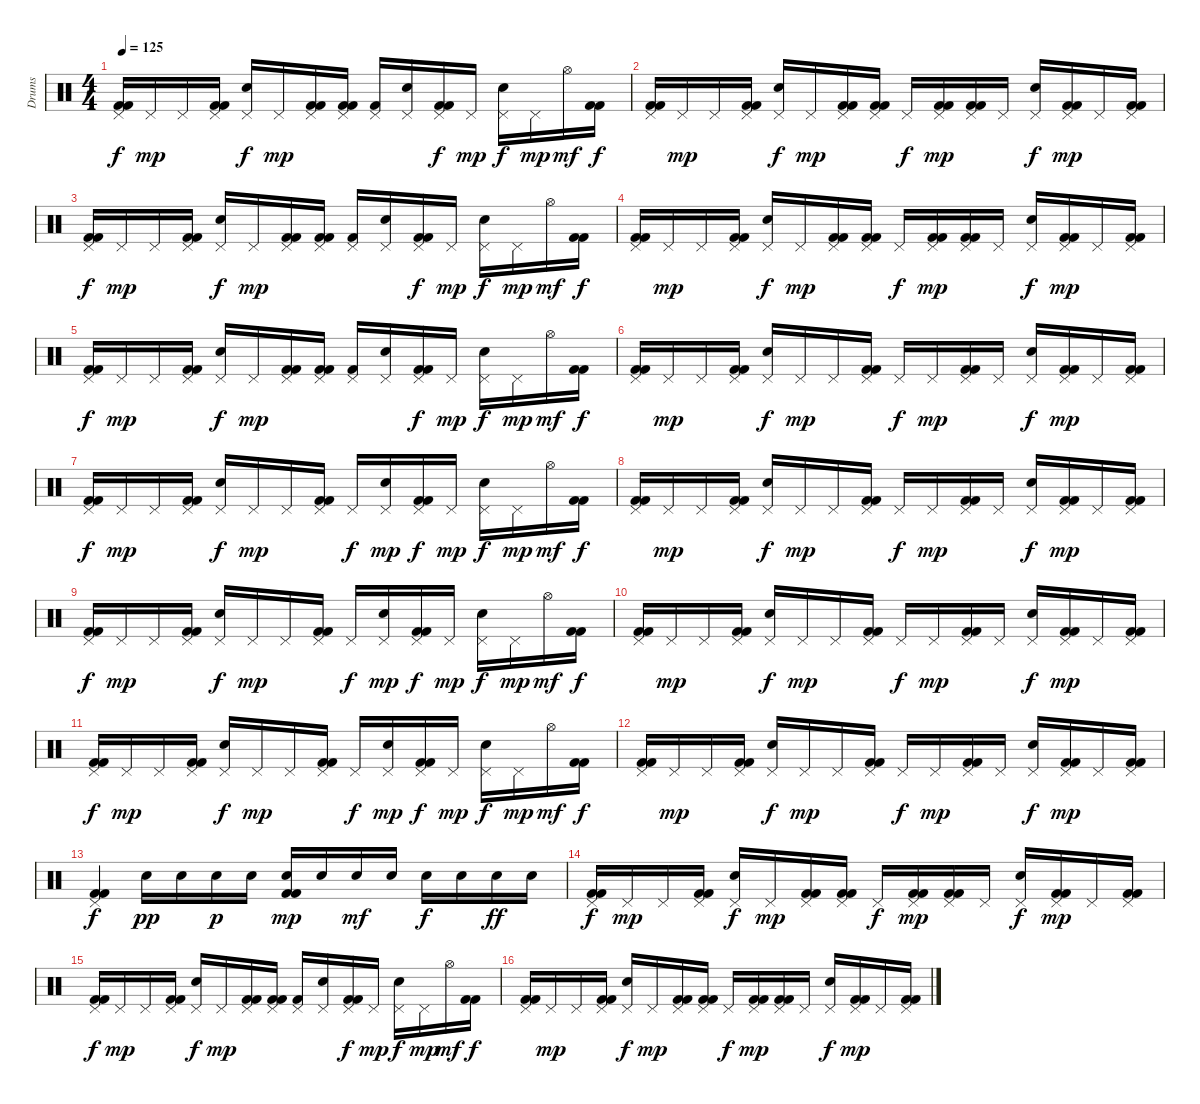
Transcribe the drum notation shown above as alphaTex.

\track ("Drums" "Drums") {instrument percussion}
\staff {score}
\articulation defaults
\ts (4 4)
\tempo 125
\clef neutral
\ks c
("Pedal Hi-Hat (hit)" "Kick (hit) 2" "Kick (hit) 2").16{dy f} "Pedal Hi-Hat (hit)".16{dy mp} "Pedal Hi-Hat (hit)".16 ("Pedal Hi-Hat (hit)" "Kick (hit) 2" "Kick (hit) 2").16 ("Pedal Hi-Hat (hit)" "Electric Snare (hit)").16{dy f} "Pedal Hi-Hat (hit)".16{dy mp} ("Pedal Hi-Hat (hit)" "Kick (hit) 2" "Kick (hit) 2").16 ("Pedal Hi-Hat (hit)" "Kick (hit) 2" "Kick (hit) 2").16 ("Pedal Hi-Hat (hit)" "Kick (hit) 2").16 ("Pedal Hi-Hat (hit)" "Electric Snare (hit)").16 ("Pedal Hi-Hat (hit)" "Kick (hit) 2" "Kick (hit) 2").16{dy f} "Pedal Hi-Hat (hit)".16{dy mp} ("Pedal Hi-Hat (hit)" "Electric Snare (hit)").16{dy f} "Pedal Hi-Hat (hit)".16{dy mp} "Hi-Hat (open)".16{dy mf} ("Kick (hit) 2" "Kick (hit) 2").16{dy f} |
("Pedal Hi-Hat (hit)" "Kick (hit) 2" "Kick (hit) 2").16 "Pedal Hi-Hat (hit)".16{dy mp} "Pedal Hi-Hat (hit)".16 ("Pedal Hi-Hat (hit)" "Kick (hit) 2" "Kick (hit) 2").16 ("Pedal Hi-Hat (hit)" "Electric Snare (hit)").16{dy f} "Pedal Hi-Hat (hit)".16{dy mp} ("Pedal Hi-Hat (hit)" "Kick (hit) 2" "Kick (hit) 2").16 ("Pedal Hi-Hat (hit)" "Kick (hit) 2" "Kick (hit) 2").16 "Pedal Hi-Hat (hit)".16{dy f} ("Pedal Hi-Hat (hit)" "Kick (hit) 2" "Kick (hit) 2").16{dy mp} ("Pedal Hi-Hat (hit)" "Kick (hit) 2" "Kick (hit) 2").16 "Pedal Hi-Hat (hit)".16 ("Pedal Hi-Hat (hit)" "Electric Snare (hit)").16{dy f} ("Pedal Hi-Hat (hit)" "Kick (hit) 2" "Kick (hit) 2").16{dy mp} "Pedal Hi-Hat (hit)".16 ("Pedal Hi-Hat (hit)" "Kick (hit) 2" "Kick (hit) 2").16 |
("Pedal Hi-Hat (hit)" "Kick (hit) 2" "Kick (hit) 2").16{dy f} "Pedal Hi-Hat (hit)".16{dy mp} "Pedal Hi-Hat (hit)".16 ("Pedal Hi-Hat (hit)" "Kick (hit) 2" "Kick (hit) 2").16 ("Pedal Hi-Hat (hit)" "Electric Snare (hit)").16{dy f} "Pedal Hi-Hat (hit)".16{dy mp} ("Pedal Hi-Hat (hit)" "Kick (hit) 2" "Kick (hit) 2").16 ("Pedal Hi-Hat (hit)" "Kick (hit) 2" "Kick (hit) 2").16 ("Pedal Hi-Hat (hit)" "Kick (hit) 2").16 ("Pedal Hi-Hat (hit)" "Electric Snare (hit)").16 ("Pedal Hi-Hat (hit)" "Kick (hit) 2" "Kick (hit) 2").16{dy f} "Pedal Hi-Hat (hit)".16{dy mp} ("Pedal Hi-Hat (hit)" "Electric Snare (hit)").16{dy f} "Pedal Hi-Hat (hit)".16{dy mp} "Hi-Hat (open)".16{dy mf} ("Kick (hit) 2" "Kick (hit) 2").16{dy f} |
("Pedal Hi-Hat (hit)" "Kick (hit) 2" "Kick (hit) 2").16 "Pedal Hi-Hat (hit)".16{dy mp} "Pedal Hi-Hat (hit)".16 ("Pedal Hi-Hat (hit)" "Kick (hit) 2" "Kick (hit) 2").16 ("Pedal Hi-Hat (hit)" "Electric Snare (hit)").16{dy f} "Pedal Hi-Hat (hit)".16{dy mp} ("Pedal Hi-Hat (hit)" "Kick (hit) 2" "Kick (hit) 2").16 ("Pedal Hi-Hat (hit)" "Kick (hit) 2" "Kick (hit) 2").16 "Pedal Hi-Hat (hit)".16{dy f} ("Pedal Hi-Hat (hit)" "Kick (hit) 2" "Kick (hit) 2").16{dy mp} ("Pedal Hi-Hat (hit)" "Kick (hit) 2" "Kick (hit) 2").16 "Pedal Hi-Hat (hit)".16 ("Pedal Hi-Hat (hit)" "Electric Snare (hit)").16{dy f} ("Pedal Hi-Hat (hit)" "Kick (hit) 2" "Kick (hit) 2").16{dy mp} "Pedal Hi-Hat (hit)".16 ("Pedal Hi-Hat (hit)" "Kick (hit) 2" "Kick (hit) 2").16 |
("Pedal Hi-Hat (hit)" "Kick (hit) 2" "Kick (hit) 2").16{dy f} "Pedal Hi-Hat (hit)".16{dy mp} "Pedal Hi-Hat (hit)".16 ("Pedal Hi-Hat (hit)" "Kick (hit) 2" "Kick (hit) 2").16 ("Pedal Hi-Hat (hit)" "Electric Snare (hit)").16{dy f} "Pedal Hi-Hat (hit)".16{dy mp} ("Pedal Hi-Hat (hit)" "Kick (hit) 2" "Kick (hit) 2").16 ("Pedal Hi-Hat (hit)" "Kick (hit) 2" "Kick (hit) 2").16 ("Pedal Hi-Hat (hit)" "Kick (hit) 2").16 ("Pedal Hi-Hat (hit)" "Electric Snare (hit)").16 ("Pedal Hi-Hat (hit)" "Kick (hit) 2" "Kick (hit) 2").16{dy f} "Pedal Hi-Hat (hit)".16{dy mp} ("Pedal Hi-Hat (hit)" "Electric Snare (hit)").16{dy f} "Pedal Hi-Hat (hit)".16{dy mp} "Hi-Hat (open)".16{dy mf} ("Kick (hit) 2" "Kick (hit) 2").16{dy f} |
("Pedal Hi-Hat (hit)" "Kick (hit) 2" "Kick (hit) 2").16 "Pedal Hi-Hat (hit)".16{dy mp} "Pedal Hi-Hat (hit)".16 ("Pedal Hi-Hat (hit)" "Kick (hit) 2" "Kick (hit) 2").16 ("Pedal Hi-Hat (hit)" "Electric Snare (hit)").16{dy f} "Pedal Hi-Hat (hit)".16{dy mp} "Pedal Hi-Hat (hit)".16 ("Pedal Hi-Hat (hit)" "Kick (hit) 2" "Kick (hit) 2").16 "Pedal Hi-Hat (hit)".16{dy f} "Pedal Hi-Hat (hit)".16{dy mp} ("Pedal Hi-Hat (hit)" "Kick (hit) 2" "Kick (hit) 2").16 "Pedal Hi-Hat (hit)".16 ("Pedal Hi-Hat (hit)" "Electric Snare (hit)").16{dy f} ("Pedal Hi-Hat (hit)" "Kick (hit) 2" "Kick (hit) 2").16{dy mp} "Pedal Hi-Hat (hit)".16 ("Pedal Hi-Hat (hit)" "Kick (hit) 2" "Kick (hit) 2").16 |
("Pedal Hi-Hat (hit)" "Kick (hit) 2" "Kick (hit) 2").16{dy f} "Pedal Hi-Hat (hit)".16{dy mp} "Pedal Hi-Hat (hit)".16 ("Pedal Hi-Hat (hit)" "Kick (hit) 2" "Kick (hit) 2").16 ("Pedal Hi-Hat (hit)" "Electric Snare (hit)").16{dy f} "Pedal Hi-Hat (hit)".16{dy mp} "Pedal Hi-Hat (hit)".16 ("Pedal Hi-Hat (hit)" "Kick (hit) 2" "Kick (hit) 2").16 "Pedal Hi-Hat (hit)".16{dy f} ("Pedal Hi-Hat (hit)" "Electric Snare (hit)").16{dy mp} ("Pedal Hi-Hat (hit)" "Kick (hit) 2" "Kick (hit) 2").16{dy f} "Pedal Hi-Hat (hit)".16{dy mp} ("Pedal Hi-Hat (hit)" "Electric Snare (hit)").16{dy f} "Pedal Hi-Hat (hit)".16{dy mp} "Hi-Hat (open)".16{dy mf} ("Kick (hit) 2" "Kick (hit) 2").16{dy f} |
("Pedal Hi-Hat (hit)" "Kick (hit) 2" "Kick (hit) 2").16 "Pedal Hi-Hat (hit)".16{dy mp} "Pedal Hi-Hat (hit)".16 ("Pedal Hi-Hat (hit)" "Kick (hit) 2" "Kick (hit) 2").16 ("Pedal Hi-Hat (hit)" "Electric Snare (hit)").16{dy f} "Pedal Hi-Hat (hit)".16{dy mp} "Pedal Hi-Hat (hit)".16 ("Pedal Hi-Hat (hit)" "Kick (hit) 2" "Kick (hit) 2").16 "Pedal Hi-Hat (hit)".16{dy f} "Pedal Hi-Hat (hit)".16{dy mp} ("Pedal Hi-Hat (hit)" "Kick (hit) 2" "Kick (hit) 2").16 "Pedal Hi-Hat (hit)".16 ("Pedal Hi-Hat (hit)" "Electric Snare (hit)").16{dy f} ("Pedal Hi-Hat (hit)" "Kick (hit) 2" "Kick (hit) 2").16{dy mp} "Pedal Hi-Hat (hit)".16 ("Pedal Hi-Hat (hit)" "Kick (hit) 2" "Kick (hit) 2").16 |
("Pedal Hi-Hat (hit)" "Kick (hit) 2" "Kick (hit) 2").16{dy f} "Pedal Hi-Hat (hit)".16{dy mp} "Pedal Hi-Hat (hit)".16 ("Pedal Hi-Hat (hit)" "Kick (hit) 2" "Kick (hit) 2").16 ("Pedal Hi-Hat (hit)" "Electric Snare (hit)").16{dy f} "Pedal Hi-Hat (hit)".16{dy mp} "Pedal Hi-Hat (hit)".16 ("Pedal Hi-Hat (hit)" "Kick (hit) 2" "Kick (hit) 2").16 "Pedal Hi-Hat (hit)".16{dy f} ("Pedal Hi-Hat (hit)" "Electric Snare (hit)").16{dy mp} ("Pedal Hi-Hat (hit)" "Kick (hit) 2" "Kick (hit) 2").16{dy f} "Pedal Hi-Hat (hit)".16{dy mp} ("Pedal Hi-Hat (hit)" "Electric Snare (hit)").16{dy f} "Pedal Hi-Hat (hit)".16{dy mp} "Hi-Hat (open)".16{dy mf} ("Kick (hit) 2" "Kick (hit) 2").16{dy f} |
("Pedal Hi-Hat (hit)" "Kick (hit) 2" "Kick (hit) 2").16 "Pedal Hi-Hat (hit)".16{dy mp} "Pedal Hi-Hat (hit)".16 ("Pedal Hi-Hat (hit)" "Kick (hit) 2" "Kick (hit) 2").16 ("Pedal Hi-Hat (hit)" "Electric Snare (hit)").16{dy f} "Pedal Hi-Hat (hit)".16{dy mp} "Pedal Hi-Hat (hit)".16 ("Pedal Hi-Hat (hit)" "Kick (hit) 2" "Kick (hit) 2").16 "Pedal Hi-Hat (hit)".16{dy f} "Pedal Hi-Hat (hit)".16{dy mp} ("Pedal Hi-Hat (hit)" "Kick (hit) 2" "Kick (hit) 2").16 "Pedal Hi-Hat (hit)".16 ("Pedal Hi-Hat (hit)" "Electric Snare (hit)").16{dy f} ("Pedal Hi-Hat (hit)" "Kick (hit) 2" "Kick (hit) 2").16{dy mp} "Pedal Hi-Hat (hit)".16 ("Pedal Hi-Hat (hit)" "Kick (hit) 2" "Kick (hit) 2").16 |
("Pedal Hi-Hat (hit)" "Kick (hit) 2" "Kick (hit) 2").16{dy f} "Pedal Hi-Hat (hit)".16{dy mp} "Pedal Hi-Hat (hit)".16 ("Pedal Hi-Hat (hit)" "Kick (hit) 2" "Kick (hit) 2").16 ("Pedal Hi-Hat (hit)" "Electric Snare (hit)").16{dy f} "Pedal Hi-Hat (hit)".16{dy mp} "Pedal Hi-Hat (hit)".16 ("Pedal Hi-Hat (hit)" "Kick (hit) 2" "Kick (hit) 2").16 "Pedal Hi-Hat (hit)".16{dy f} ("Pedal Hi-Hat (hit)" "Electric Snare (hit)").16{dy mp} ("Pedal Hi-Hat (hit)" "Kick (hit) 2" "Kick (hit) 2").16{dy f} "Pedal Hi-Hat (hit)".16{dy mp} ("Pedal Hi-Hat (hit)" "Electric Snare (hit)").16{dy f} "Pedal Hi-Hat (hit)".16{dy mp} "Hi-Hat (open)".16{dy mf} ("Kick (hit) 2" "Kick (hit) 2").16{dy f} |
("Pedal Hi-Hat (hit)" "Kick (hit) 2" "Kick (hit) 2").16 "Pedal Hi-Hat (hit)".16{dy mp} "Pedal Hi-Hat (hit)".16 ("Pedal Hi-Hat (hit)" "Kick (hit) 2" "Kick (hit) 2").16 ("Pedal Hi-Hat (hit)" "Electric Snare (hit)").16{dy f} "Pedal Hi-Hat (hit)".16{dy mp} "Pedal Hi-Hat (hit)".16 ("Pedal Hi-Hat (hit)" "Kick (hit) 2" "Kick (hit) 2").16 "Pedal Hi-Hat (hit)".16{dy f} "Pedal Hi-Hat (hit)".16{dy mp} ("Pedal Hi-Hat (hit)" "Kick (hit) 2" "Kick (hit) 2").16 "Pedal Hi-Hat (hit)".16 ("Pedal Hi-Hat (hit)" "Electric Snare (hit)").16{dy f} ("Pedal Hi-Hat (hit)" "Kick (hit) 2" "Kick (hit) 2").16{dy mp} "Pedal Hi-Hat (hit)".16 ("Pedal Hi-Hat (hit)" "Kick (hit) 2" "Kick (hit) 2").16 |
("Pedal Hi-Hat (hit)" "Kick (hit) 2" "Kick (hit) 2").4{dy f} "Electric Snare (hit)".16{dy pp} "Electric Snare (hit)".16 "Electric Snare (hit)".16{dy p} "Electric Snare (hit)".16 ("Electric Snare (hit)" "Kick (hit) 2" "Kick (hit) 2").16{dy mp} "Electric Snare (hit)".16 "Electric Snare (hit)".16{dy mf} "Electric Snare (hit)".16 "Electric Snare (hit)".16{dy f} "Electric Snare (hit)".16 "Electric Snare (hit)".16{dy ff} "Electric Snare (hit)".16 |
("Pedal Hi-Hat (hit)" "Kick (hit) 2" "Kick (hit) 2").16{dy f} "Pedal Hi-Hat (hit)".16{dy mp} "Pedal Hi-Hat (hit)".16 ("Pedal Hi-Hat (hit)" "Kick (hit) 2" "Kick (hit) 2").16 ("Pedal Hi-Hat (hit)" "Electric Snare (hit)").16{dy f} "Pedal Hi-Hat (hit)".16{dy mp} ("Pedal Hi-Hat (hit)" "Kick (hit) 2" "Kick (hit) 2").16 ("Pedal Hi-Hat (hit)" "Kick (hit) 2" "Kick (hit) 2").16 "Pedal Hi-Hat (hit)".16{dy f} ("Pedal Hi-Hat (hit)" "Kick (hit) 2" "Kick (hit) 2").16{dy mp} ("Pedal Hi-Hat (hit)" "Kick (hit) 2" "Kick (hit) 2").16 "Pedal Hi-Hat (hit)".16 ("Pedal Hi-Hat (hit)" "Electric Snare (hit)").16{dy f} ("Pedal Hi-Hat (hit)" "Kick (hit) 2" "Kick (hit) 2").16{dy mp} "Pedal Hi-Hat (hit)".16 ("Pedal Hi-Hat (hit)" "Kick (hit) 2" "Kick (hit) 2").16 |
("Pedal Hi-Hat (hit)" "Kick (hit) 2" "Kick (hit) 2").16{dy f} "Pedal Hi-Hat (hit)".16{dy mp} "Pedal Hi-Hat (hit)".16 ("Pedal Hi-Hat (hit)" "Kick (hit) 2" "Kick (hit) 2").16 ("Pedal Hi-Hat (hit)" "Electric Snare (hit)").16{dy f} "Pedal Hi-Hat (hit)".16{dy mp} ("Pedal Hi-Hat (hit)" "Kick (hit) 2" "Kick (hit) 2").16 ("Pedal Hi-Hat (hit)" "Kick (hit) 2" "Kick (hit) 2").16 ("Pedal Hi-Hat (hit)" "Kick (hit) 2").16 ("Pedal Hi-Hat (hit)" "Electric Snare (hit)").16 ("Pedal Hi-Hat (hit)" "Kick (hit) 2" "Kick (hit) 2").16{dy f} "Pedal Hi-Hat (hit)".16{dy mp} ("Pedal Hi-Hat (hit)" "Electric Snare (hit)").16{dy f} "Pedal Hi-Hat (hit)".16{dy mp} "Hi-Hat (open)".16{dy mf} ("Kick (hit) 2" "Kick (hit) 2").16{dy f} |
("Pedal Hi-Hat (hit)" "Kick (hit) 2" "Kick (hit) 2").16 "Pedal Hi-Hat (hit)".16{dy mp} "Pedal Hi-Hat (hit)".16 ("Pedal Hi-Hat (hit)" "Kick (hit) 2" "Kick (hit) 2").16 ("Pedal Hi-Hat (hit)" "Electric Snare (hit)").16{dy f} "Pedal Hi-Hat (hit)".16{dy mp} ("Pedal Hi-Hat (hit)" "Kick (hit) 2" "Kick (hit) 2").16 ("Pedal Hi-Hat (hit)" "Kick (hit) 2" "Kick (hit) 2").16 "Pedal Hi-Hat (hit)".16{dy f} ("Pedal Hi-Hat (hit)" "Kick (hit) 2" "Kick (hit) 2").16{dy mp} ("Pedal Hi-Hat (hit)" "Kick (hit) 2" "Kick (hit) 2").16 "Pedal Hi-Hat (hit)".16 ("Pedal Hi-Hat (hit)" "Electric Snare (hit)").16{dy f} ("Pedal Hi-Hat (hit)" "Kick (hit) 2" "Kick (hit) 2").16{dy mp} "Pedal Hi-Hat (hit)".16 ("Pedal Hi-Hat (hit)" "Kick (hit) 2" "Kick (hit) 2").16
